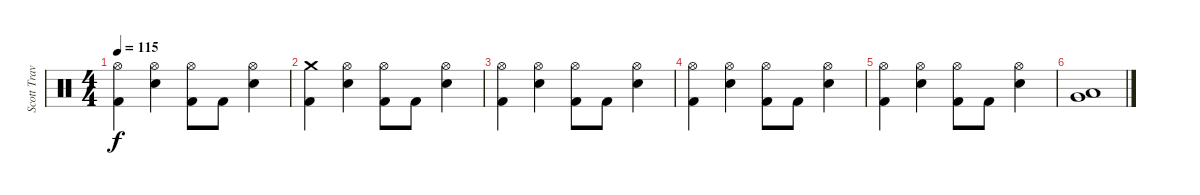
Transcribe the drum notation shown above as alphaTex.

\track ("Scott Travis" "Scott Trav") {instrument percussion}
\staff {score}
\articulation defaults
\ts (4 4)
\tempo 115
\clef neutral
\ks c
("Hi-Hat (open)" "Kick (hit) 2").4{dy f} ("Hi-Hat (open)" "Snare (hit) 2").4 ("Hi-Hat (open)" "Kick (hit) 2").8 "Kick (hit) 2".8 ("Hi-Hat (open)" "Snare (hit) 2").4 |
("Crash medium (hit)" "Kick (hit) 2").4 ("Hi-Hat (open)" "Snare (hit) 2").4 ("Hi-Hat (open)" "Kick (hit) 2").8 "Kick (hit) 2".8 ("Hi-Hat (open)" "Snare (hit) 2").4 |
("Hi-Hat (open)" "Kick (hit) 2").4 ("Hi-Hat (open)" "Snare (hit) 2").4 ("Hi-Hat (open)" "Kick (hit) 2").8 "Kick (hit) 2".8 ("Hi-Hat (open)" "Snare (hit) 2").4 |
("Hi-Hat (open)" "Kick (hit) 2").4 ("Hi-Hat (open)" "Snare (hit) 2").4 ("Hi-Hat (open)" "Kick (hit) 2").8 "Kick (hit) 2".8 ("Hi-Hat (open)" "Snare (hit) 2").4 |
("Hi-Hat (open)" "Kick (hit) 2").4 ("Hi-Hat (open)" "Snare (hit) 2").4 ("Hi-Hat (open)" "Kick (hit) 2").8 "Kick (hit) 2".8 ("Hi-Hat (open)" "Snare (hit) 2").4 |
("Low Tom (hit)" "Very Low Tom (hit)").1
